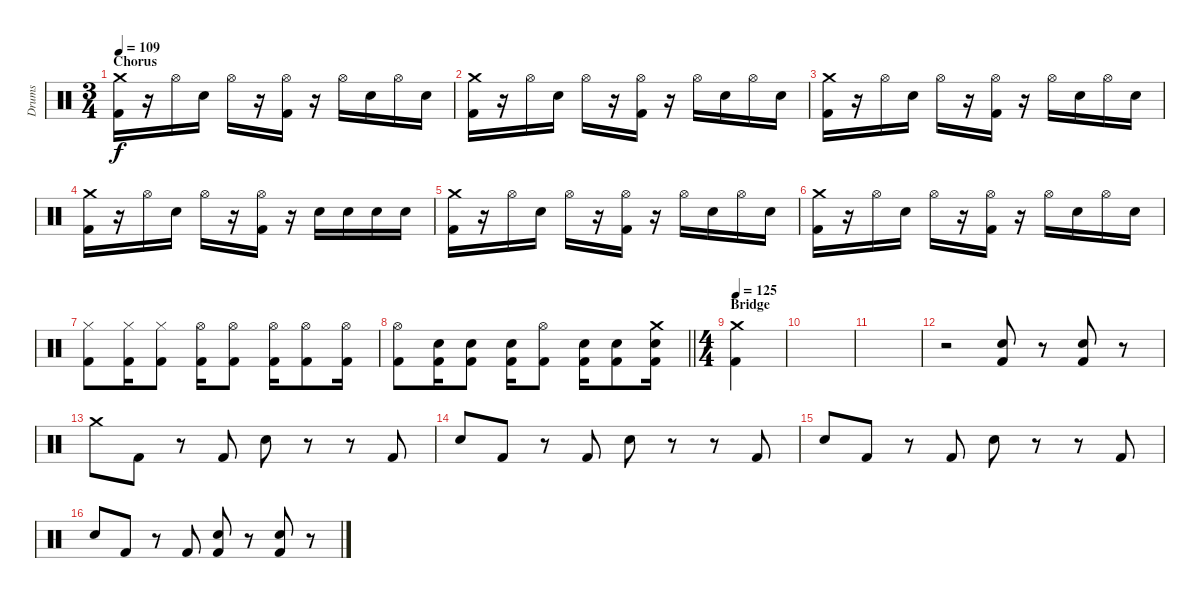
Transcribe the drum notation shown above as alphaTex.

\track ("Drums" "Drums") {instrument percussion}
\staff {score}
\articulation defaults
\ts (3 4)
\section ("" "Chorus")
\tempo 109
\clef neutral
\ks c
("Crash medium (hit)" "Kick (hit) 2").16{dy f} r.16 "Hi-Hat (open)".16 "Electric Snare (hit)".16 "Hi-Hat (open)".16 r.16 ("Hi-Hat (open)" "Kick (hit) 2").16 r.16 "Hi-Hat (open)".16 "Electric Snare (hit)".16 "Hi-Hat (open)".16 "Electric Snare (hit)".16 |
("Crash medium (hit)" "Kick (hit) 2").16 r.16 "Hi-Hat (open)".16 "Electric Snare (hit)".16 "Hi-Hat (open)".16 r.16 ("Hi-Hat (open)" "Kick (hit) 2").16 r.16 "Hi-Hat (open)".16 "Electric Snare (hit)".16 "Hi-Hat (open)".16 "Electric Snare (hit)".16 |
("Crash medium (hit)" "Kick (hit) 2").16 r.16 "Hi-Hat (open)".16 "Electric Snare (hit)".16 "Hi-Hat (open)".16 r.16 ("Hi-Hat (open)" "Kick (hit) 2").16 r.16 "Hi-Hat (open)".16 "Electric Snare (hit)".16 "Hi-Hat (open)".16 "Electric Snare (hit)".16 |
("Crash medium (hit)" "Kick (hit) 2").16 r.16 "Hi-Hat (open)".16 "Electric Snare (hit)".16 "Hi-Hat (open)".16 r.16 ("Hi-Hat (open)" "Kick (hit) 2").16 r.16 "Electric Snare (hit)".16 "Electric Snare (hit)".16 "Electric Snare (hit)".16 "Electric Snare (hit)".16 |
("Crash medium (hit)" "Kick (hit) 2").16 r.16 "Hi-Hat (open)".16 "Electric Snare (hit)".16 "Hi-Hat (open)".16 r.16 ("Hi-Hat (open)" "Kick (hit) 2").16 r.16 "Hi-Hat (open)".16 "Electric Snare (hit)".16 "Hi-Hat (open)".16 "Electric Snare (hit)".16 |
("Crash medium (hit)" "Kick (hit) 2").16 r.16 "Hi-Hat (open)".16 "Electric Snare (hit)".16 "Hi-Hat (open)".16 r.16 ("Hi-Hat (open)" "Kick (hit) 2").16 r.16 "Hi-Hat (open)".16 "Electric Snare (hit)".16 "Hi-Hat (open)".16 "Electric Snare (hit)".16 |
("Hi-Hat (closed)" "Kick (hit) 2").8 ("Hi-Hat (closed)" "Kick (hit) 2").16 ("Hi-Hat (closed)" "Kick (hit) 2").8 ("Hi-Hat (open)" "Kick (hit) 2").16 ("Hi-Hat (open)" "Kick (hit) 2").8 ("Hi-Hat (open)" "Kick (hit) 2").16 ("Hi-Hat (open)" "Kick (hit) 2").8 ("Hi-Hat (open)" "Kick (hit) 2").16 |
\barLineRight lightlight
("Hi-Hat (open)" "Kick (hit) 2").8 ("Electric Snare (hit)" "Kick (hit) 2").16 ("Electric Snare (hit)" "Kick (hit) 2").8 ("Electric Snare (hit)" "Kick (hit) 2").16 ("Hi-Hat (open)" "Kick (hit) 2").8 ("Electric Snare (hit)" "Kick (hit) 2").16 ("Electric Snare (hit)" "Kick (hit) 2").8 ("Crash medium (hit)" "Electric Snare (hit)" "Kick (hit) 2").16 |
\ts (4 4)
\section ("" "Bridge")
\tempo 125
("Crash medium (hit)" "Kick (hit) 2").4 |
|
|
r.2 ("Electric Snare (hit)" "Kick (hit) 2").8 r.8 ("Electric Snare (hit)" "Kick (hit) 2").8 r.8 |
"Crash medium (hit)".8 "Kick (hit) 2".8 r.8 "Kick (hit) 2".8 "Electric Snare (hit)".8 r.8 r.8 "Kick (hit) 2".8 |
"Electric Snare (hit)".8 "Kick (hit) 2".8 r.8 "Kick (hit) 2".8 "Electric Snare (hit)".8 r.8 r.8 "Kick (hit) 2".8 |
"Electric Snare (hit)".8 "Kick (hit) 2".8 r.8 "Kick (hit) 2".8 "Electric Snare (hit)".8 r.8 r.8 "Kick (hit) 2".8 |
"Electric Snare (hit)".8 "Kick (hit) 2".8 r.8 "Kick (hit) 2".8 ("Electric Snare (hit)" "Kick (hit) 2").8 r.8 ("Electric Snare (hit)" "Kick (hit) 2").8 r.8
